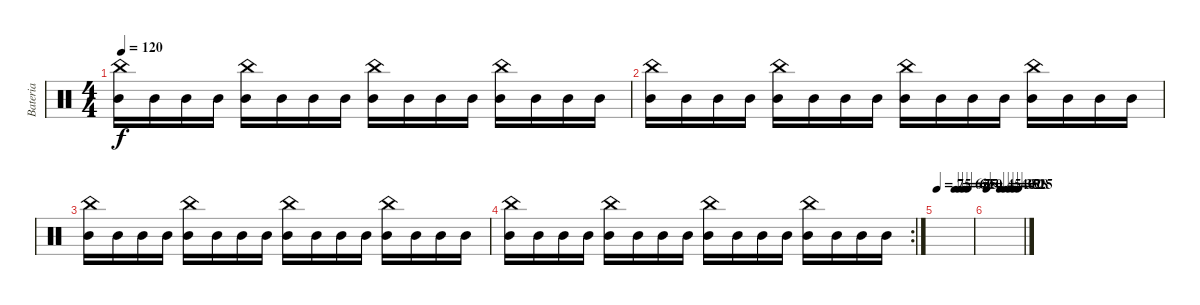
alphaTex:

\track ("Bateria" "Bateria") {instrument percussion}
\staff {score}
\articulation defaults
\ts (4 4)
\tempo 120
\clef neutral
\ks c
("Mid Tom (hit)" "China (hit)").16{dy f} "Mid Tom (hit)".16 "Mid Tom (hit)".16 "Mid Tom (hit)".16 ("Mid Tom (hit)" "China (hit)").16 "Mid Tom (hit)".16 "Mid Tom (hit)".16 "Mid Tom (hit)".16 ("Mid Tom (hit)" "China (hit)").16 "Mid Tom (hit)".16 "Mid Tom (hit)".16 "Mid Tom (hit)".16 ("Mid Tom (hit)" "China (hit)").16 "Mid Tom (hit)".16 "Mid Tom (hit)".16 "Mid Tom (hit)".16 |
("Mid Tom (hit)" "China (hit)").16 "Mid Tom (hit)".16 "Mid Tom (hit)".16 "Mid Tom (hit)".16 ("Mid Tom (hit)" "China (hit)").16 "Mid Tom (hit)".16 "Mid Tom (hit)".16 "Mid Tom (hit)".16 ("Mid Tom (hit)" "China (hit)").16 "Mid Tom (hit)".16 "Mid Tom (hit)".16 "Mid Tom (hit)".16 ("Mid Tom (hit)" "China (hit)").16 "Mid Tom (hit)".16 "Mid Tom (hit)".16 "Mid Tom (hit)".16 |
("Mid Tom (hit)" "China (hit)").16 "Mid Tom (hit)".16 "Mid Tom (hit)".16 "Mid Tom (hit)".16 ("Mid Tom (hit)" "China (hit)").16 "Mid Tom (hit)".16 "Mid Tom (hit)".16 "Mid Tom (hit)".16 ("Mid Tom (hit)" "China (hit)").16 "Mid Tom (hit)".16 "Mid Tom (hit)".16 "Mid Tom (hit)".16 ("Mid Tom (hit)" "China (hit)").16 "Mid Tom (hit)".16 "Mid Tom (hit)".16 "Mid Tom (hit)".16 |
\rc 2
("Mid Tom (hit)" "China (hit)").16 "Mid Tom (hit)".16 "Mid Tom (hit)".16 "Mid Tom (hit)".16 ("Mid Tom (hit)" "China (hit)").16 "Mid Tom (hit)".16 "Mid Tom (hit)".16 "Mid Tom (hit)".16 ("Mid Tom (hit)" "China (hit)").16 "Mid Tom (hit)".16 "Mid Tom (hit)".16 "Mid Tom (hit)".16 ("Mid Tom (hit)" "China (hit)").16 "Mid Tom (hit)".16 "Mid Tom (hit)".16 "Mid Tom (hit)".16 |
\tempo 75
\tempo (65 0.5)
\tempo (60 0.625)
\tempo (55 0.75)
\tempo (50 0.875)
|
\tempo 45
\tempo (40 0.375)
\tempo (35 0.5)
\tempo (30 0.625)
\tempo (28 0.75)
\tempo (25 0.875)
